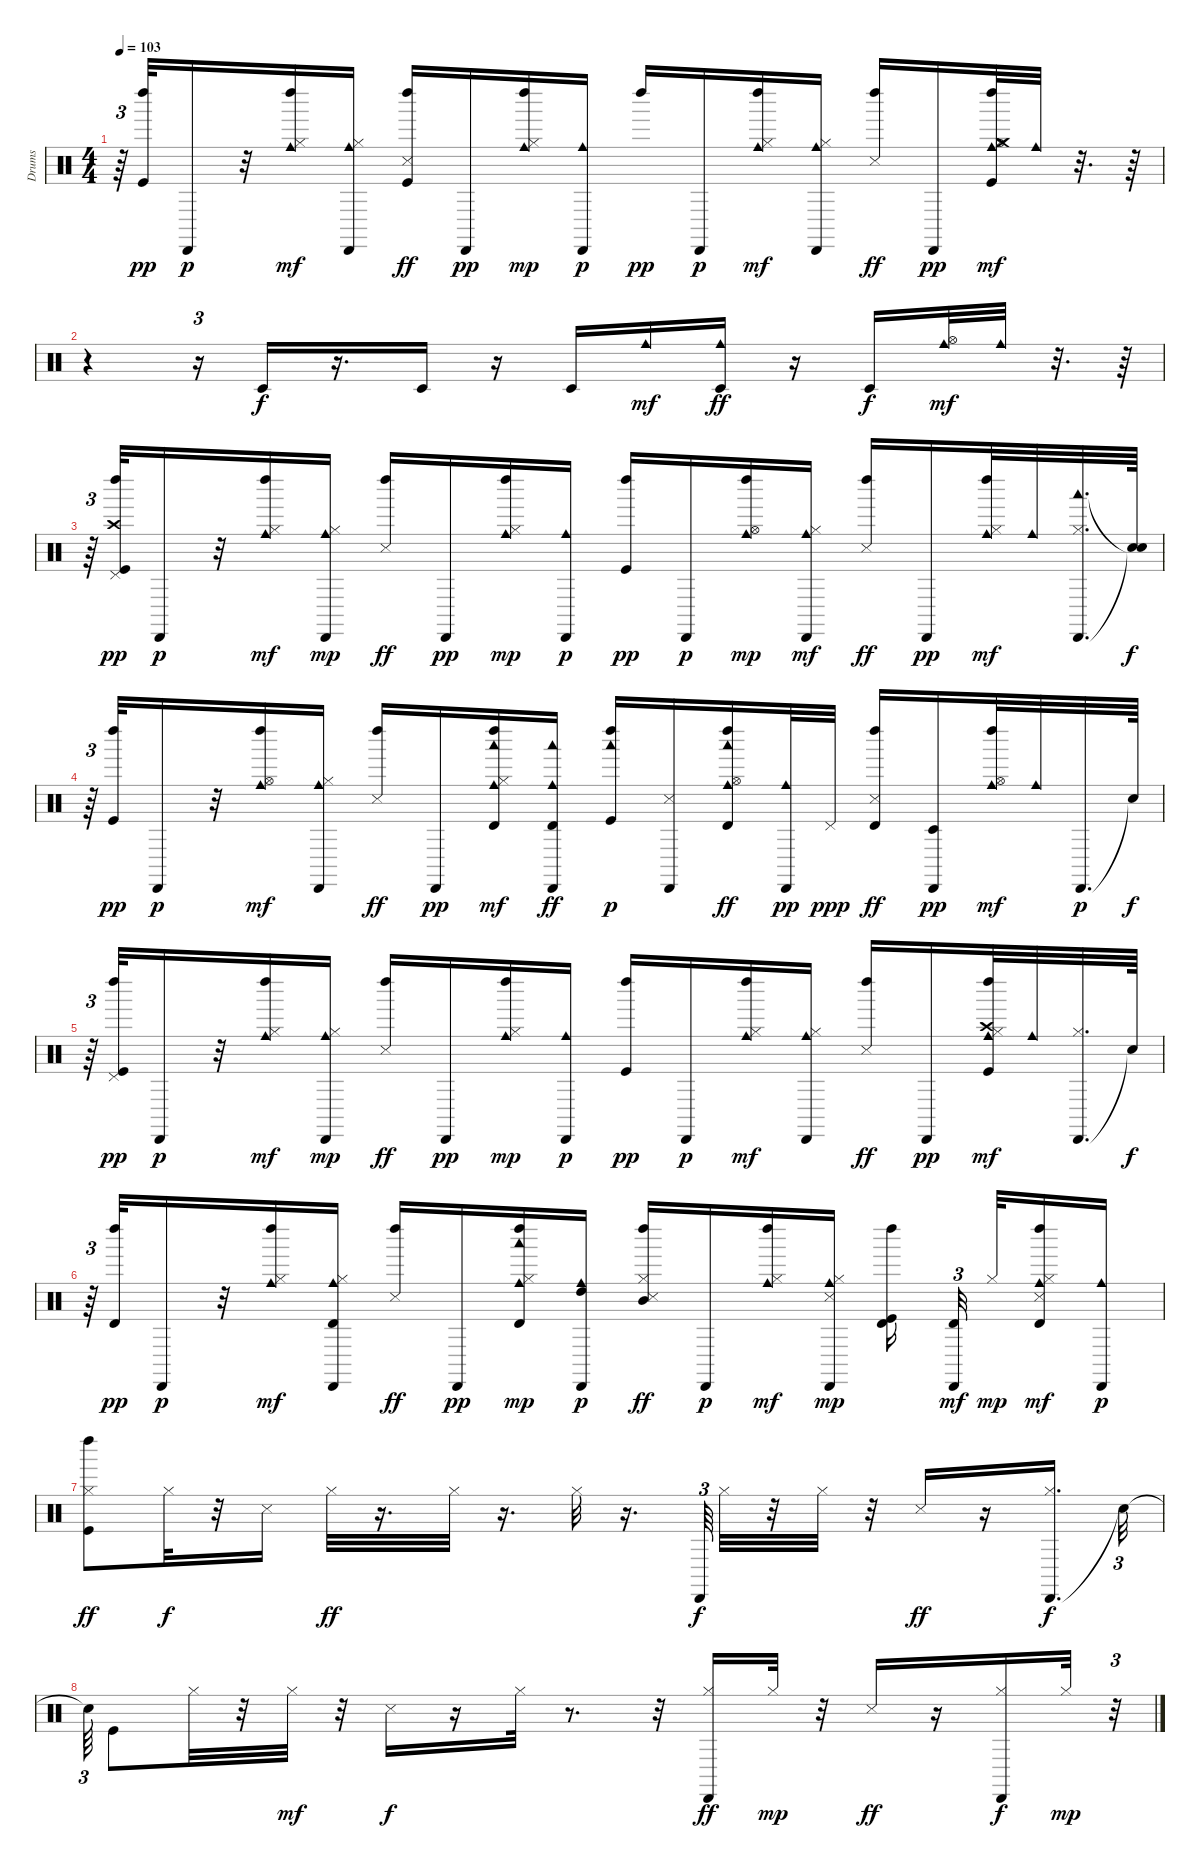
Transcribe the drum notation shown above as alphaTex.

\track ("Drums" "Drums") {instrument percussion}
\staff {score}
\articulation defaults
\ts (4 4)
\tempo 103
\clef neutral
\ks c
r.64{tu (3 2) dy f} ("Left Maraca (hit)" "Kick (hit)").32{dy pp} "Cabasa (hit)".16{dy p} r.32 ("Left Maraca (hit)" "Hi-Hat (closed)" "Cowbell medium (hit)").16{dy mf} ("Cowbell medium (hit)" "Cabasa (hit)" "Hi-Hat (closed)").16 ("Left Maraca (hit)" "Kick (hit)" "Snare (side stick) 3").16{dy ff} "Cabasa (hit)".16{dy pp} ("Left Maraca (hit)" "Hi-Hat (closed)" "Cowbell medium (hit)").16{dy mp} ("Cowbell medium (hit)" "Cabasa (hit)").16{dy p} "Left Maraca (hit)".16{dy pp} "Cabasa (hit)".16{dy p} ("Left Maraca (hit)" "Hi-Hat (closed)" "Cowbell medium (hit)").16{dy mf} ("Cowbell medium (hit)" "Cabasa (hit)" "Hi-Hat (closed)").16 ("Left Maraca (hit)" "Snare (side stick) 3").16{dy ff} "Cabasa (hit)".16{dy pp} ("Left Maraca (hit)" "Crash medium (hit)" "Hi-Hat (open)" "Kick (hit)" "Cowbell medium (hit)").32{dy mf} "Cowbell medium (hit)".32 r.32{d} r.64 |
r.4 r.16{tu (3 2)} "Timbale low (hit)".16{dy f} r.16{d} "Timbale low (hit)".16 r.16 "Timbale low (hit)".16 "Cowbell medium (hit)".16{dy mf} ("Cowbell medium (hit)" "Timbale low (hit)").16{dy ff} r.16 "Timbale low (hit)".16{dy f} ("Hi-Hat (open)" "Cowbell medium (hit)").32{dy mf} "Cowbell medium (hit)".32 r.32{d} r.64 |
r.64{tu (3 2)} ("Left Maraca (hit)" "Pedal Hi-Hat (hit)" "Crash high (hit)" "Kick (hit)").32{dy pp} "Cabasa (hit)".16{dy p} r.32 ("Left Maraca (hit)" "Hi-Hat (closed)" "Cowbell medium (hit)").16{dy mf} ("Cowbell medium (hit)" "Cabasa (hit)" "Hi-Hat (closed)").16{dy mp} ("Left Maraca (hit)" "Snare (side stick) 3").16{dy ff} "Cabasa (hit)".16{dy pp} ("Left Maraca (hit)" "Hi-Hat (closed)" "Cowbell medium (hit)").16{dy mp} ("Cowbell medium (hit)" "Cabasa (hit)").16{dy p} ("Left Maraca (hit)" "Kick (hit)").16{dy pp} "Cabasa (hit)".16{dy p} ("Left Maraca (hit)" "Hi-Hat (open)" "Cowbell medium (hit)").16{dy mp} ("Cowbell medium (hit)" "Cabasa (hit)" "Hi-Hat (closed)").16{dy mf} ("Left Maraca (hit)" "Snare (side stick) 3").16{dy ff} "Cabasa (hit)".16{dy pp} ("Left Maraca (hit)" "Hi-Hat (closed)" "Cowbell medium (hit)").32{dy mf} "Cowbell medium (hit)".32 ("Woodblock low (hit)" "Cabasa (hit)" "Hi-Hat (closed)").32{d} ("Snare (hit)"{t} "Snare (hit)"{t}).64{dy f} |
r.64{tu (3 2)} ("Left Maraca (hit)" "Kick (hit)").32{dy pp} "Cabasa (hit)".16{dy p} r.32 ("Left Maraca (hit)" "Hi-Hat (open)" "Cowbell medium (hit)").16{dy mf} ("Cowbell medium (hit)" "Cabasa (hit)" "Hi-Hat (closed)").16 ("Left Maraca (hit)" "Snare (side stick) 3").16{dy ff} "Cabasa (hit)".16{dy pp} ("Left Maraca (hit)" "Hi-Hat (closed)" "Woodblock low (hit)" "Cowbell medium (hit)" "Timbale high (hit)").16{dy mf} ("Cowbell medium (hit)" "Cabasa (hit)" "Woodblock low (hit)" "Timbale high (hit)").16{dy ff} ("Left Maraca (hit)" "Kick (hit)" "Woodblock low (hit)").16{dy p} ("Cabasa (hit)" "Snare (side stick) 3").16 ("Left Maraca (hit)" "Hi-Hat (open)" "Cowbell medium (hit)" "Woodblock low (hit)" "Timbale high (hit)").16{dy ff} ("Cowbell medium (hit)" "Cabasa (hit)").32{dy pp} "Pedal Hi-Hat (hit)".32{dy ppp} ("Left Maraca (hit)" "Snare (side stick) 3" "Timbale high (hit)").16{dy ff} ("Timbale low (hit)" "Cabasa (hit)").16{dy pp} ("Left Maraca (hit)" "Hi-Hat (open)" "Cowbell medium (hit)").32{dy mf} "Cowbell medium (hit)".32 "Cabasa (hit)".32{d dy p} "Snare (hit)"{t}.64{dy f} |
r.64{tu (3 2)} ("Pedal Hi-Hat (hit)" "Left Maraca (hit)" "Kick (hit)").32{dy pp} "Cabasa (hit)".16{dy p} r.32 ("Left Maraca (hit)" "Hi-Hat (closed)" "Cowbell medium (hit)").16{dy mf} ("Cowbell medium (hit)" "Cabasa (hit)" "Hi-Hat (closed)").16{dy mp} ("Left Maraca (hit)" "Snare (side stick) 3").16{dy ff} "Cabasa (hit)".16{dy pp} ("Left Maraca (hit)" "Hi-Hat (closed)" "Cowbell medium (hit)").16{dy mp} ("Cowbell medium (hit)" "Cabasa (hit)").16{dy p} ("Left Maraca (hit)" "Kick (hit)").16{dy pp} "Cabasa (hit)".16{dy p} ("Left Maraca (hit)" "Hi-Hat (closed)" "Cowbell medium (hit)").16{dy mf} ("Cowbell medium (hit)" "Cabasa (hit)" "Hi-Hat (closed)").16 ("Left Maraca (hit)" "Snare (side stick) 3").16{dy ff} "Cabasa (hit)".16{dy pp} ("Left Maraca (hit)" "Crash high (hit)" "Kick (hit)" "Hi-Hat (closed)" "Cowbell medium (hit)").32{dy mf} "Cowbell medium (hit)".32 ("Cabasa (hit)" "Hi-Hat (closed)").32{d} "Snare (hit)"{t}.64{dy f} |
r.64{tu (3 2)} ("Left Maraca (hit)" "Timbale high (hit)").32{dy pp} "Cabasa (hit)".16{dy p} r.32 ("Left Maraca (hit)" "Hi-Hat (closed)" "Cowbell medium (hit)").16{dy mf} ("Cowbell medium (hit)" "Cabasa (hit)" "Timbale high (hit)" "Hi-Hat (closed)").16 ("Left Maraca (hit)" "Snare (side stick) 3").16{dy ff} "Cabasa (hit)".16{dy pp} ("Timbale high (hit)" "Left Maraca (hit)" "Hi-Hat (closed)" "Woodblock low (hit)" "Cowbell medium (hit)").16{dy mp} ("Cowbell medium (hit)" "Cabasa (hit)" "High Tom (hit)").16{dy p} ("Left Maraca (hit)" "Mid Tom (hit)" "Snare (side stick) 3" "Hi-Hat (closed)").16{dy ff} "Cabasa (hit)".16{dy p} ("Left Maraca (hit)" "Hi-Hat (closed)" "Cowbell medium (hit)").16{dy mf} ("Cowbell medium (hit)" "Cabasa (hit)" "Snare (side stick) 3" "Hi-Hat (closed)").16{dy mp} ("Left Maraca (hit)" "Kick (hit)" "Timbale high (hit)").16{beam splitsecondary} ("Cabasa (hit)" "Timbale high (hit)").32{tu (3 2) dy mf beam splitsecondary} "Hi-Hat (closed)".32{dy mp} ("Timbale high (hit)" "Left Maraca (hit)" "Snare (side stick) 3" "Hi-Hat (closed)" "Cowbell medium (hit)").16{dy mf} ("Cowbell medium (hit)" "Cabasa (hit)").16{dy p} |
("Left Maraca (hit)" "Kick (hit)" "Hi-Hat (closed)").8{dy ff} "Hi-Hat (closed)".32{dy f} r.32 "Snare (side stick) 3".16 "Hi-Hat (closed)".32{dy ff} r.16{d} "Hi-Hat (closed)".32 r.16{d} "Hi-Hat (closed)".32 r.16{d} "Cabasa (hit)".64{tu (3 2) dy f} "Hi-Hat (closed)".32 r.32 "Hi-Hat (closed)".32 r.32 "Snare (side stick) 3".16{dy ff} r.16 ("Cabasa (hit)" "Hi-Hat (closed)").16{d dy f} "Snare (hit)"{t}.32{tu (3 2)} |
"Snare (hit)"{t}.64{tu (3 2)} "Kick (hit)".8 "Hi-Hat (closed)".32 r.32 "Hi-Hat (closed)".32{dy mf} r.32 "Snare (side stick) 3".16{dy f} r.16 "Hi-Hat (closed)".32 r.8{d} r.32 ("Cabasa (hit)" "Hi-Hat (closed)").16{dy ff} "Hi-Hat (closed)".32{dy mp} r.32 "Snare (side stick) 3".16{dy ff} r.16 ("Cabasa (hit)" "Hi-Hat (closed)").16{dy f} "Hi-Hat (closed)".32{dy mp} r.32{tu (3 2)}
